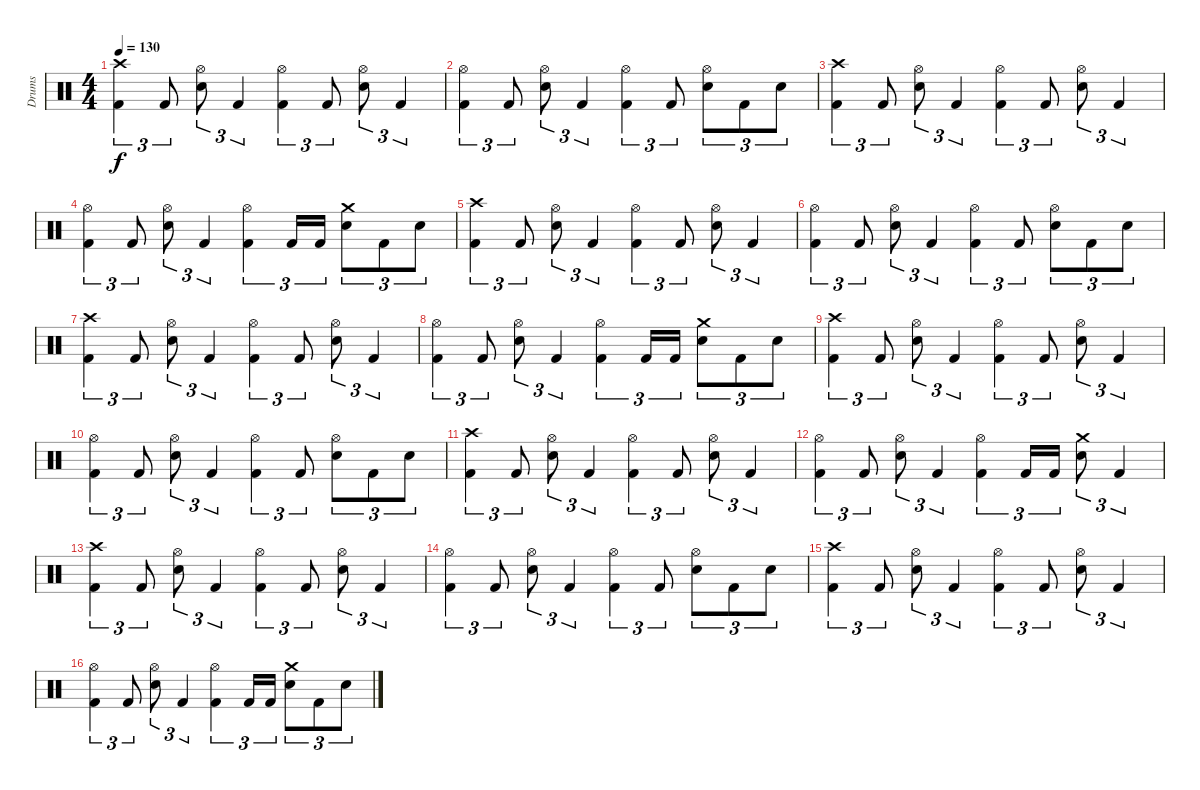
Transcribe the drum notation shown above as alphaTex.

\track ("Drums" "Drums") {instrument percussion}
\staff {score}
\articulation defaults
\ts (4 4)
\tempo 130
\clef neutral
\ks c
("Crash high (hit)" "Kick (hit) 2").4{tu (3 2) dy f} "Kick (hit) 2".8{tu (3 2)} ("Hi-Hat (open)" "Electric Snare (hit)").8{tu (3 2)} "Kick (hit) 2".4{tu (3 2)} ("Hi-Hat (open)" "Kick (hit) 2").4{tu (3 2)} "Kick (hit) 2".8{tu (3 2)} ("Hi-Hat (open)" "Electric Snare (hit)").8{tu (3 2)} "Kick (hit) 2".4{tu (3 2)} |
("Hi-Hat (open)" "Kick (hit) 2").4{tu (3 2)} "Kick (hit) 2".8{tu (3 2)} ("Hi-Hat (open)" "Electric Snare (hit)").8{tu (3 2)} "Kick (hit) 2".4{tu (3 2)} ("Hi-Hat (open)" "Kick (hit) 2").4{tu (3 2)} "Kick (hit) 2".8{tu (3 2)} ("Hi-Hat (open)" "Electric Snare (hit)").8{tu (3 2)} "Kick (hit) 2".8{tu (3 2)} "Electric Snare (hit)".8{tu (3 2)} |
("Crash high (hit)" "Kick (hit) 2").4{tu (3 2)} "Kick (hit) 2".8{tu (3 2)} ("Hi-Hat (open)" "Electric Snare (hit)").8{tu (3 2)} "Kick (hit) 2".4{tu (3 2)} ("Hi-Hat (open)" "Kick (hit) 2").4{tu (3 2)} "Kick (hit) 2".8{tu (3 2)} ("Hi-Hat (open)" "Electric Snare (hit)").8{tu (3 2)} "Kick (hit) 2".4{tu (3 2)} |
("Hi-Hat (open)" "Kick (hit) 2").4{tu (3 2)} "Kick (hit) 2".8{tu (3 2)} ("Hi-Hat (open)" "Electric Snare (hit)").8{tu (3 2)} "Kick (hit) 2".4{tu (3 2)} ("Hi-Hat (open)" "Kick (hit) 2").4{tu (3 2)} "Kick (hit) 2".16{tu (3 2)} "Kick (hit) 2".16{tu (3 2)} ("Crash medium (hit)" "Electric Snare (hit)").8{tu (3 2)} "Kick (hit) 2".8{tu (3 2)} "Electric Snare (hit)".8{tu (3 2)} |
("Crash high (hit)" "Kick (hit) 2").4{tu (3 2)} "Kick (hit) 2".8{tu (3 2)} ("Hi-Hat (open)" "Electric Snare (hit)").8{tu (3 2)} "Kick (hit) 2".4{tu (3 2)} ("Hi-Hat (open)" "Kick (hit) 2").4{tu (3 2)} "Kick (hit) 2".8{tu (3 2)} ("Hi-Hat (open)" "Electric Snare (hit)").8{tu (3 2)} "Kick (hit) 2".4{tu (3 2)} |
("Hi-Hat (open)" "Kick (hit) 2").4{tu (3 2)} "Kick (hit) 2".8{tu (3 2)} ("Hi-Hat (open)" "Electric Snare (hit)").8{tu (3 2)} "Kick (hit) 2".4{tu (3 2)} ("Hi-Hat (open)" "Kick (hit) 2").4{tu (3 2)} "Kick (hit) 2".8{tu (3 2)} ("Hi-Hat (open)" "Electric Snare (hit)").8{tu (3 2)} "Kick (hit) 2".8{tu (3 2)} "Electric Snare (hit)".8{tu (3 2)} |
("Crash high (hit)" "Kick (hit) 2").4{tu (3 2)} "Kick (hit) 2".8{tu (3 2)} ("Hi-Hat (open)" "Electric Snare (hit)").8{tu (3 2)} "Kick (hit) 2".4{tu (3 2)} ("Hi-Hat (open)" "Kick (hit) 2").4{tu (3 2)} "Kick (hit) 2".8{tu (3 2)} ("Hi-Hat (open)" "Electric Snare (hit)").8{tu (3 2)} "Kick (hit) 2".4{tu (3 2)} |
("Hi-Hat (open)" "Kick (hit) 2").4{tu (3 2)} "Kick (hit) 2".8{tu (3 2)} ("Hi-Hat (open)" "Electric Snare (hit)").8{tu (3 2)} "Kick (hit) 2".4{tu (3 2)} ("Hi-Hat (open)" "Kick (hit) 2").4{tu (3 2)} "Kick (hit) 2".16{tu (3 2)} "Kick (hit) 2".16{tu (3 2)} ("Crash medium (hit)" "Electric Snare (hit)").8{tu (3 2)} "Kick (hit) 2".8{tu (3 2)} "Electric Snare (hit)".8{tu (3 2)} |
("Crash high (hit)" "Kick (hit) 2").4{tu (3 2)} "Kick (hit) 2".8{tu (3 2)} ("Hi-Hat (open)" "Electric Snare (hit)").8{tu (3 2)} "Kick (hit) 2".4{tu (3 2)} ("Hi-Hat (open)" "Kick (hit) 2").4{tu (3 2)} "Kick (hit) 2".8{tu (3 2)} ("Hi-Hat (open)" "Electric Snare (hit)").8{tu (3 2)} "Kick (hit) 2".4{tu (3 2)} |
("Hi-Hat (open)" "Kick (hit) 2").4{tu (3 2)} "Kick (hit) 2".8{tu (3 2)} ("Hi-Hat (open)" "Electric Snare (hit)").8{tu (3 2)} "Kick (hit) 2".4{tu (3 2)} ("Hi-Hat (open)" "Kick (hit) 2").4{tu (3 2)} "Kick (hit) 2".8{tu (3 2)} ("Hi-Hat (open)" "Electric Snare (hit)").8{tu (3 2)} "Kick (hit) 2".8{tu (3 2)} "Electric Snare (hit)".8{tu (3 2)} |
("Crash high (hit)" "Kick (hit) 2").4{tu (3 2)} "Kick (hit) 2".8{tu (3 2)} ("Hi-Hat (open)" "Electric Snare (hit)").8{tu (3 2)} "Kick (hit) 2".4{tu (3 2)} ("Hi-Hat (open)" "Kick (hit) 2").4{tu (3 2)} "Kick (hit) 2".8{tu (3 2)} ("Hi-Hat (open)" "Electric Snare (hit)").8{tu (3 2)} "Kick (hit) 2".4{tu (3 2)} |
("Hi-Hat (open)" "Kick (hit) 2").4{tu (3 2)} "Kick (hit) 2".8{tu (3 2)} ("Hi-Hat (open)" "Electric Snare (hit)").8{tu (3 2)} "Kick (hit) 2".4{tu (3 2)} ("Hi-Hat (open)" "Kick (hit) 2").4{tu (3 2)} "Kick (hit) 2".16{tu (3 2)} "Kick (hit) 2".16{tu (3 2)} ("Crash medium (hit)" "Electric Snare (hit)").8{tu (3 2)} "Kick (hit) 2".4{tu (3 2)} |
("Crash high (hit)" "Kick (hit) 2").4{tu (3 2)} "Kick (hit) 2".8{tu (3 2)} ("Hi-Hat (open)" "Electric Snare (hit)").8{tu (3 2)} "Kick (hit) 2".4{tu (3 2)} ("Hi-Hat (open)" "Kick (hit) 2").4{tu (3 2)} "Kick (hit) 2".8{tu (3 2)} ("Hi-Hat (open)" "Electric Snare (hit)").8{tu (3 2)} "Kick (hit) 2".4{tu (3 2)} |
("Hi-Hat (open)" "Kick (hit) 2").4{tu (3 2)} "Kick (hit) 2".8{tu (3 2)} ("Hi-Hat (open)" "Electric Snare (hit)").8{tu (3 2)} "Kick (hit) 2".4{tu (3 2)} ("Hi-Hat (open)" "Kick (hit) 2").4{tu (3 2)} "Kick (hit) 2".8{tu (3 2)} ("Hi-Hat (open)" "Electric Snare (hit)").8{tu (3 2)} "Kick (hit) 2".8{tu (3 2)} "Electric Snare (hit)".8{tu (3 2)} |
("Crash high (hit)" "Kick (hit) 2").4{tu (3 2)} "Kick (hit) 2".8{tu (3 2)} ("Hi-Hat (open)" "Electric Snare (hit)").8{tu (3 2)} "Kick (hit) 2".4{tu (3 2)} ("Hi-Hat (open)" "Kick (hit) 2").4{tu (3 2)} "Kick (hit) 2".8{tu (3 2)} ("Hi-Hat (open)" "Electric Snare (hit)").8{tu (3 2)} "Kick (hit) 2".4{tu (3 2)} |
("Hi-Hat (open)" "Kick (hit) 2").4{tu (3 2)} "Kick (hit) 2".8{tu (3 2)} ("Hi-Hat (open)" "Electric Snare (hit)").8{tu (3 2)} "Kick (hit) 2".4{tu (3 2)} ("Hi-Hat (open)" "Kick (hit) 2").4{tu (3 2)} "Kick (hit) 2".16{tu (3 2)} "Kick (hit) 2".16{tu (3 2)} ("Crash medium (hit)" "Electric Snare (hit)").8{tu (3 2)} "Kick (hit) 2".8{tu (3 2)} "Electric Snare (hit)".8{tu (3 2)}
